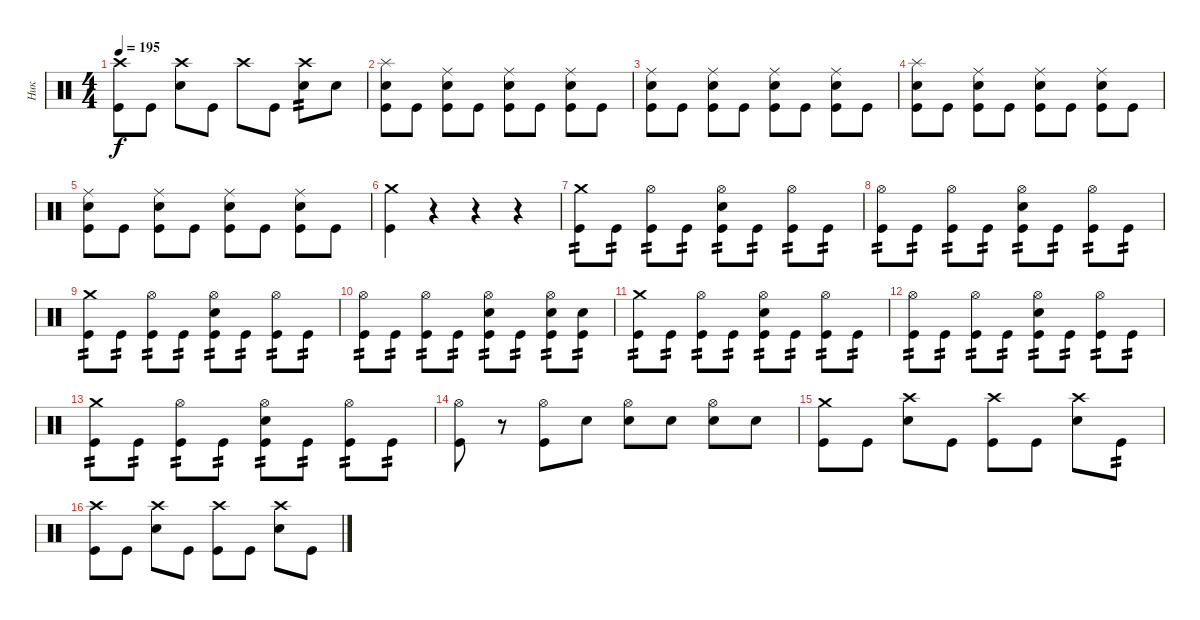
\track ("Ник" "Ник") {instrument percussion}
\staff {score}
\articulation defaults
\ts (4 4)
\tempo 195
\clef neutral
\ks c
("Crash high (hit)" "Kick (hit)").8{dy f} "Kick (hit)".8 ("Crash high (hit)" "Snare (hit) 2").8 "Kick (hit)".8 "Crash high (hit)".8 "Kick (hit)".8 ("Crash high (hit)" "Snare (hit) 2").8{tp 2} "Snare (hit) 2".8 |
("Splash (hit)" "Snare (hit) 2" "Kick (hit)").8 "Kick (hit)".8 ("Ride (middle)" "Snare (hit) 2" "Kick (hit)").8 "Kick (hit)".8 ("Ride (middle)" "Snare (hit) 2" "Kick (hit)").8 "Kick (hit)".8 ("Ride (middle)" "Snare (hit) 2" "Kick (hit)").8 "Kick (hit)".8 |
("Ride (middle)" "Snare (hit) 2" "Kick (hit)").8 "Kick (hit)".8 ("Ride (middle)" "Snare (hit) 2" "Kick (hit)").8 "Kick (hit)".8 ("Ride (middle)" "Snare (hit) 2" "Kick (hit)").8 "Kick (hit)".8 ("Ride (middle)" "Snare (hit) 2" "Kick (hit)").8 "Kick (hit)".8 |
("Splash (hit)" "Snare (hit) 2" "Kick (hit)").8 "Kick (hit)".8 ("Ride (middle)" "Snare (hit) 2" "Kick (hit)").8 "Kick (hit)".8 ("Ride (middle)" "Snare (hit) 2" "Kick (hit)").8 "Kick (hit)".8 ("Ride (middle)" "Snare (hit) 2" "Kick (hit)").8 "Kick (hit)".8 |
("Ride (middle)" "Snare (hit) 2" "Kick (hit)").8 "Kick (hit)".8 ("Ride (middle)" "Snare (hit) 2" "Kick (hit)").8 "Kick (hit)".8 ("Ride (middle)" "Snare (hit) 2" "Kick (hit)").8 "Kick (hit)".8 ("Ride (middle)" "Snare (hit) 2" "Kick (hit)").8 "Kick (hit)".8 |
("Crash medium (hit)" "Kick (hit)").4 r.4 r.4 r.4 |
("Crash medium (hit)" "Kick (hit)").8{tp 2} "Kick (hit)".8{tp 2} ("Hi-Hat (open)" "Kick (hit)").8{tp 2} "Kick (hit)".8{tp 2} ("Hi-Hat (open)" "Snare (hit) 2" "Kick (hit)").8{tp 2} "Kick (hit)".8{tp 2} ("Hi-Hat (open)" "Kick (hit)").8{tp 2} "Kick (hit)".8{tp 2} |
("Hi-Hat (open)" "Kick (hit)").8{tp 2} "Kick (hit)".8{tp 2} ("Hi-Hat (open)" "Kick (hit)").8{tp 2} "Kick (hit)".8{tp 2} ("Hi-Hat (open)" "Snare (hit) 2" "Kick (hit)").8{tp 2} "Kick (hit)".8{tp 2} ("Hi-Hat (open)" "Kick (hit)").8{tp 2} "Kick (hit)".8{tp 2} |
("Crash medium (hit)" "Kick (hit)").8{tp 2} "Kick (hit)".8{tp 2} ("Hi-Hat (open)" "Kick (hit)").8{tp 2} "Kick (hit)".8{tp 2} ("Hi-Hat (open)" "Snare (hit) 2" "Kick (hit)").8{tp 2} "Kick (hit)".8{tp 2} ("Hi-Hat (open)" "Kick (hit)").8{tp 2} "Kick (hit)".8{tp 2} |
("Hi-Hat (open)" "Kick (hit)").8{tp 2} "Kick (hit)".8{tp 2} ("Hi-Hat (open)" "Kick (hit)").8{tp 2} "Kick (hit)".8{tp 2} ("Hi-Hat (open)" "Snare (hit) 2" "Kick (hit)").8{tp 2} "Kick (hit)".8{tp 2} ("Hi-Hat (open)" "Snare (hit) 2" "Kick (hit)").8{tp 2} ("Snare (hit) 2" "Kick (hit)").8{tp 2} |
("Crash medium (hit)" "Kick (hit)").8{tp 2} "Kick (hit)".8{tp 2} ("Hi-Hat (open)" "Kick (hit)").8{tp 2} "Kick (hit)".8{tp 2} ("Hi-Hat (open)" "Snare (hit) 2" "Kick (hit)").8{tp 2} "Kick (hit)".8{tp 2} ("Hi-Hat (open)" "Kick (hit)").8{tp 2} "Kick (hit)".8{tp 2} |
("Hi-Hat (open)" "Kick (hit)").8{tp 2} "Kick (hit)".8{tp 2} ("Hi-Hat (open)" "Kick (hit)").8{tp 2} "Kick (hit)".8{tp 2} ("Hi-Hat (open)" "Snare (hit) 2" "Kick (hit)").8{tp 2} "Kick (hit)".8{tp 2} ("Hi-Hat (open)" "Kick (hit)").8{tp 2} "Kick (hit)".8{tp 2} |
("Crash medium (hit)" "Kick (hit)").8{tp 2} "Kick (hit)".8{tp 2} ("Hi-Hat (open)" "Kick (hit)").8{tp 2} "Kick (hit)".8{tp 2} ("Hi-Hat (open)" "Snare (hit) 2" "Kick (hit)").8{tp 2} "Kick (hit)".8{tp 2} ("Hi-Hat (open)" "Kick (hit)").8{tp 2} "Kick (hit)".8{tp 2} |
("Hi-Hat (open)" "Kick (hit)").8 r.8 ("Hi-Hat (open)" "Kick (hit)").8 "Snare (hit) 2".8 ("Hi-Hat (open)" "Snare (hit) 2").8 "Snare (hit) 2".8 ("Hi-Hat (open)" "Snare (hit) 2").8 "Snare (hit) 2".8 |
("Crash medium (hit)" "Kick (hit)").8 "Kick (hit)".8 ("Crash high (hit)" "Snare (hit) 2").8 "Kick (hit)".8 ("Crash high (hit)" "Kick (hit)").8 "Kick (hit)".8 ("Crash high (hit)" "Snare (hit) 2").8 "Kick (hit)".8{tp 2} |
("Crash high (hit)" "Kick (hit)").8 "Kick (hit)".8 ("Crash high (hit)" "Snare (hit) 2").8 "Kick (hit)".8 ("Crash high (hit)" "Kick (hit)").8 "Kick (hit)".8 ("Crash high (hit)" "Snare (hit) 2").8 "Kick (hit)".8
